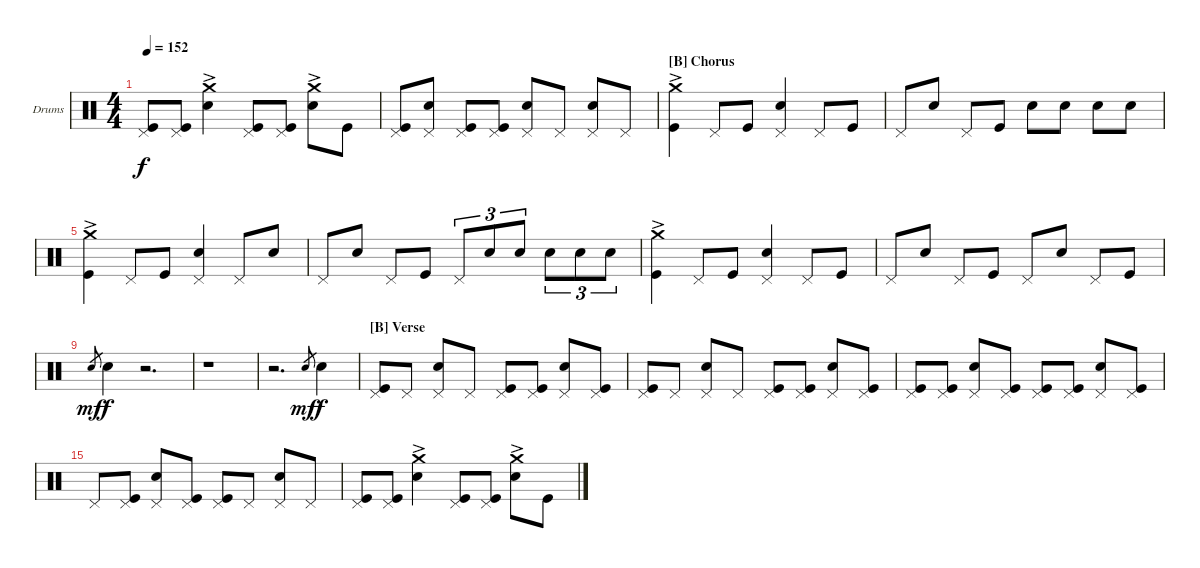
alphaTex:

\bracketExtendMode nobrackets
\firstSystemTrackNameOrientation horizontal
\otherSystemsTrackNameOrientation horizontal
\defaultBarNumberDisplay FirstOfSystem
\track ("Drumkit" "Drums") {instrument percussion}
\staff {score}
\articulation defaults
\ts (4 4)
\tempo 152
\clef neutral
\ks c
("Pedal Hi-Hat (hit)" "Kick (hit)").8{dy f} ("Pedal Hi-Hat (hit)" "Kick (hit)").8 ("Crash medium (hit)"{ac} "Snare (hit) 2").4 ("Pedal Hi-Hat (hit)" "Kick (hit)").8 ("Pedal Hi-Hat (hit)" "Kick (hit)").8 ("Crash medium (hit)"{ac} "Snare (hit) 2").8 "Kick (hit)".8 |
("Pedal Hi-Hat (hit)" "Kick (hit)").8 ("Pedal Hi-Hat (hit)" "Snare (hit) 2").8 ("Pedal Hi-Hat (hit)" "Kick (hit)").8 ("Pedal Hi-Hat (hit)" "Kick (hit)").8 ("Pedal Hi-Hat (hit)" "Snare (hit) 2").8 "Pedal Hi-Hat (hit)".8 ("Pedal Hi-Hat (hit)" "Snare (hit) 2").8 "Pedal Hi-Hat (hit)".8 |
\section ("B" "Chorus")
("Crash medium (hit)"{ac} "Kick (hit)").4 "Pedal Hi-Hat (hit)".8 "Kick (hit)".8 ("Pedal Hi-Hat (hit)" "Snare (hit) 2").4 "Pedal Hi-Hat (hit)".8 "Kick (hit)".8 |
"Pedal Hi-Hat (hit)".8 "Snare (hit) 2".8 "Pedal Hi-Hat (hit)".8 "Kick (hit)".8 "Snare (hit) 2".8 "Snare (hit) 2".8 "Snare (hit) 2".8 "Snare (hit) 2".8 |
("Crash medium (hit)"{ac} "Kick (hit)").4 "Pedal Hi-Hat (hit)".8 "Kick (hit)".8 ("Pedal Hi-Hat (hit)" "Snare (hit) 2").4 "Pedal Hi-Hat (hit)".8 "Snare (hit) 2".8 |
"Pedal Hi-Hat (hit)".8 "Snare (hit) 2".8 "Pedal Hi-Hat (hit)".8 "Kick (hit)".8 "Pedal Hi-Hat (hit)".8{tu (3 2)} "Snare (hit) 2".8{tu (3 2)} "Snare (hit) 2".8{tu (3 2)} "Snare (hit) 2".8{tu (3 2)} "Snare (hit) 2".8{tu (3 2)} "Snare (hit) 2".8{tu (3 2)} |
("Crash medium (hit)"{ac} "Kick (hit)").4 "Pedal Hi-Hat (hit)".8 "Kick (hit)".8 ("Pedal Hi-Hat (hit)" "Snare (hit) 2").4 "Pedal Hi-Hat (hit)".8 "Kick (hit)".8 |
"Pedal Hi-Hat (hit)".8 "Snare (hit) 2".8 "Pedal Hi-Hat (hit)".8 "Kick (hit)".8 "Pedal Hi-Hat (hit)".8 "Snare (hit) 2".8 "Pedal Hi-Hat (hit)".8 "Kick (hit)".8 |
"Snare (hit) 2".8{gr dy mf} "Snare (hit) 2".4{dy f} r.2{d} |
r.1 |
r.2{d} "Snare (hit) 2".8{gr dy mf} "Snare (hit) 2".4{dy f} |
\section ("B" "Verse")
("Pedal Hi-Hat (hit)" "Kick (hit)").8 "Pedal Hi-Hat (hit)".8 ("Pedal Hi-Hat (hit)" "Snare (hit) 2").8 "Pedal Hi-Hat (hit)".8 ("Pedal Hi-Hat (hit)" "Kick (hit)").8 ("Pedal Hi-Hat (hit)" "Kick (hit)").8 ("Pedal Hi-Hat (hit)" "Snare (hit) 2").8 ("Pedal Hi-Hat (hit)" "Kick (hit)").8 |
("Pedal Hi-Hat (hit)" "Kick (hit)").8 "Pedal Hi-Hat (hit)".8 ("Pedal Hi-Hat (hit)" "Snare (hit) 2").8 "Pedal Hi-Hat (hit)".8 ("Pedal Hi-Hat (hit)" "Kick (hit)").8 ("Pedal Hi-Hat (hit)" "Kick (hit)").8 ("Pedal Hi-Hat (hit)" "Snare (hit) 2").8 ("Pedal Hi-Hat (hit)" "Kick (hit)").8 |
("Pedal Hi-Hat (hit)" "Kick (hit)").8 ("Pedal Hi-Hat (hit)" "Kick (hit)").8 ("Pedal Hi-Hat (hit)" "Snare (hit) 2").8 ("Pedal Hi-Hat (hit)" "Kick (hit)").8 ("Pedal Hi-Hat (hit)" "Kick (hit)").8 ("Pedal Hi-Hat (hit)" "Kick (hit)").8 ("Pedal Hi-Hat (hit)" "Snare (hit) 2").8 ("Pedal Hi-Hat (hit)" "Kick (hit)").8 |
"Pedal Hi-Hat (hit)".8 ("Pedal Hi-Hat (hit)" "Kick (hit)").8 ("Pedal Hi-Hat (hit)" "Snare (hit) 2").8 ("Pedal Hi-Hat (hit)" "Kick (hit)").8 ("Pedal Hi-Hat (hit)" "Kick (hit)").8 "Pedal Hi-Hat (hit)".8 ("Pedal Hi-Hat (hit)" "Snare (hit) 2").8 "Pedal Hi-Hat (hit)".8 |
("Pedal Hi-Hat (hit)" "Kick (hit)").8 ("Pedal Hi-Hat (hit)" "Kick (hit)").8 ("Crash medium (hit)"{ac} "Snare (hit) 2").4 ("Pedal Hi-Hat (hit)" "Kick (hit)").8 ("Pedal Hi-Hat (hit)" "Kick (hit)").8 ("Crash medium (hit)"{ac} "Snare (hit) 2").8 "Kick (hit)".8
